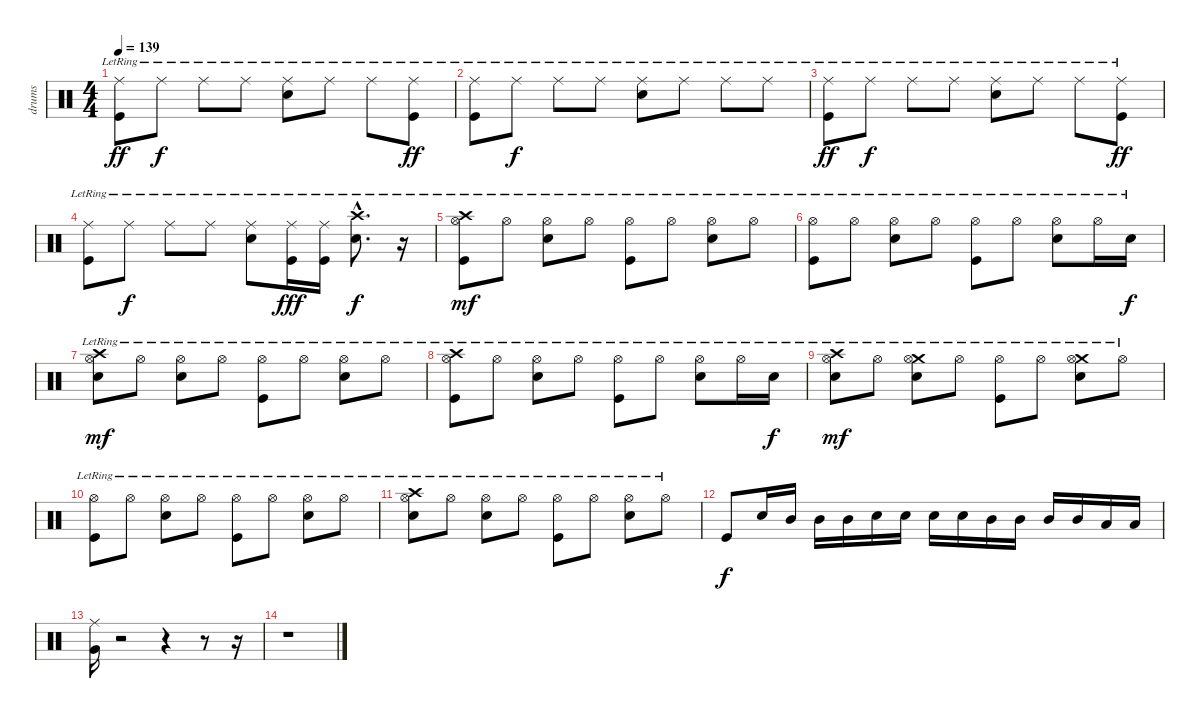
\track ("drums" "drums") {instrument percussion}
\staff {score}
\articulation defaults
\ts (4 4)
\tempo 139
\clef neutral
\ks c
("Ride (middle)"{lr} "Kick (hit)"{lr}).8{dy ff} "Ride (middle)"{lr}.8{dy f} "Ride (middle)"{lr}.8 "Ride (middle)"{lr}.8 ("Ride (middle)"{lr} "Electric Snare (hit)"{lr}).8 "Ride (middle)"{lr}.8 "Ride (middle)"{lr}.8 ("Ride (middle)"{lr} "Kick (hit)"{lr}).8{dy ff} |
("Ride (middle)"{lr} "Kick (hit)"{lr}).8 "Ride (middle)"{lr}.8{dy f} "Ride (middle)"{lr}.8 "Ride (middle)"{lr}.8 ("Ride (middle)"{lr} "Electric Snare (hit)"{lr}).8 "Ride (middle)"{lr}.8 "Ride (middle)"{lr}.8 "Ride (middle)"{lr}.8 |
("Ride (middle)"{lr} "Kick (hit)"{lr}).8{dy ff} "Ride (middle)"{lr}.8{dy f} "Ride (middle)"{lr}.8 "Ride (middle)"{lr}.8 ("Ride (middle)"{lr} "Electric Snare (hit)"{lr}).8 "Ride (middle)"{lr}.8 "Ride (middle)"{lr}.8 ("Ride (middle)"{lr} "Kick (hit)"{lr}).8{dy ff} |
("Ride (middle)"{lr} "Kick (hit)"{lr}).8 "Ride (middle)"{lr}.8{dy f} "Ride (middle)"{lr}.8 "Ride (middle)"{lr}.8 ("Ride (middle)"{lr} "Electric Snare (hit)"{lr}).8 ("Ride (middle)"{lr} "Kick (hit)").16{dy fff} ("Ride (middle)"{lr} "Kick (hit)"{lr}).16 ("Crash high (hit)"{hac lr} "Electric Snare (hit)"{hac}).8{d dy f} r.16 |
("Crash high (hit)"{lr} "Kick (hit)"{lr} "Hi-Hat (open)"{lr}).8{dy mf} "Hi-Hat (open)"{lr}.8 ("Electric Snare (hit)"{lr} "Hi-Hat (open)"{lr}).8 "Hi-Hat (open)"{lr}.8 ("Kick (hit)"{lr} "Hi-Hat (open)"{lr}).8 "Hi-Hat (open)"{lr}.8 ("Electric Snare (hit)"{lr} "Hi-Hat (open)"{lr}).8 "Hi-Hat (open)"{lr}.8 |
("Kick (hit)"{lr} "Hi-Hat (open)"{lr}).8 "Hi-Hat (open)"{lr}.8 ("Electric Snare (hit)"{lr} "Hi-Hat (open)"{lr}).8 "Hi-Hat (open)"{lr}.8 ("Kick (hit)"{lr} "Hi-Hat (open)"{lr}).8 "Hi-Hat (open)"{lr}.8 ("Electric Snare (hit)"{lr} "Hi-Hat (open)"{lr}).8 "Hi-Hat (open)"{lr}.16 "Electric Snare (hit)"{lr}.16{dy f} |
("Crash high (hit)"{lr} "Electric Snare (hit)"{lr} "Hi-Hat (open)"{lr}).8{dy mf} "Hi-Hat (open)"{lr}.8 ("Electric Snare (hit)"{lr} "Hi-Hat (open)"{lr}).8 "Hi-Hat (open)"{lr}.8 ("Kick (hit)"{lr} "Hi-Hat (open)"{lr}).8 "Hi-Hat (open)"{lr}.8 ("Electric Snare (hit)"{lr} "Hi-Hat (open)"{lr}).8 "Hi-Hat (open)"{lr}.8 |
("Crash high (hit)" "Kick (hit)"{lr} "Hi-Hat (open)"{lr}).8 "Hi-Hat (open)"{lr}.8 ("Electric Snare (hit)"{lr} "Hi-Hat (open)"{lr}).8 "Hi-Hat (open)"{lr}.8 ("Kick (hit)"{lr} "Hi-Hat (open)"{lr}).8 "Hi-Hat (open)"{lr}.8 ("Electric Snare (hit)"{lr} "Hi-Hat (open)"{lr}).8 "Hi-Hat (open)"{lr}.16 "Electric Snare (hit)"{lr}.16{dy f} |
("Crash high (hit)"{lr} "Electric Snare (hit)"{lr} "Hi-Hat (open)"{lr}).8{dy mf} "Hi-Hat (open)"{lr}.8 ("Crash medium (hit)" "Electric Snare (hit)"{lr} "Hi-Hat (open)"{lr}).8 "Hi-Hat (open)"{lr}.8 ("Kick (hit)"{lr} "Hi-Hat (open)"{lr}).8 "Hi-Hat (open)"{lr}.8 ("Crash medium (hit)" "Electric Snare (hit)"{lr} "Hi-Hat (open)"{lr}).8 "Hi-Hat (open)"{lr}.8 |
("Kick (hit)"{lr} "Hi-Hat (open)"{lr}).8 "Hi-Hat (open)"{lr}.8 ("Electric Snare (hit)"{lr} "Hi-Hat (open)"{lr}).8 "Hi-Hat (open)"{lr}.8 ("Kick (hit)"{lr} "Hi-Hat (open)"{lr}).8 "Hi-Hat (open)"{lr}.8 ("Electric Snare (hit)"{lr} "Hi-Hat (open)"{lr}).8 "Hi-Hat (open)"{lr}.8 |
("Crash high (hit)"{lr} "Electric Snare (hit)"{lr} "Hi-Hat (open)"{lr}).8 "Hi-Hat (open)"{lr}.8 ("Electric Snare (hit)"{lr} "Hi-Hat (open)"{lr}).8 "Hi-Hat (open)"{lr}.8 ("Kick (hit)"{lr} "Hi-Hat (open)"{lr}).8 "Hi-Hat (open)"{lr}.8 ("Electric Snare (hit)"{lr} "Hi-Hat (open)"{lr}).8 "Hi-Hat (open)"{lr}.8 |
"Kick (hit)".8{dy f} "Electric Snare (hit)".16 "Mid Tom (hit)".16 "Mid Tom (hit)".16 "Mid Tom (hit)".16 "Electric Snare (hit)".16 "Electric Snare (hit)".16 "Electric Snare (hit)".16 "Electric Snare (hit)".16 "Mid Tom (hit)".16 "Mid Tom (hit)".16 "Mid Tom (hit)".16 "Mid Tom (hit)".16 "Low Tom (hit)".16 "Low Tom (hit)".16 |
("Ride (middle)" "Very Low Tom (hit)").16 r.2 r.4 r.8 r.16 |
r.1
